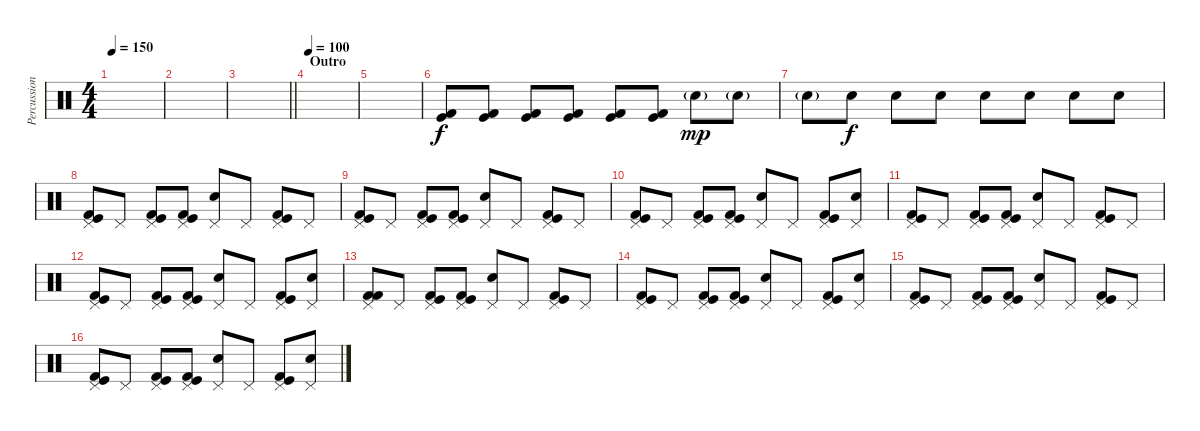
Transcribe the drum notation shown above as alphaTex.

\track ("Percussion" "Percussion") {instrument percussion}
\staff {score}
\articulation defaults
\ts (4 4)
\tempo 150
\clef neutral
\ks c
|
|
\barLineRight lightlight
|
\section ("" "Outro")
\tempo 100
|
|
("Kick (hit)" "Kick (hit) 2").8 ("Kick (hit)" "Kick (hit) 2").8 ("Kick (hit)" "Kick (hit) 2").8 ("Kick (hit)" "Kick (hit) 2").8 ("Kick (hit)" "Kick (hit) 2").8 ("Kick (hit)" "Kick (hit) 2").8 "Electric Snare (hit)"{g}.8{dy mp} "Electric Snare (hit)"{g}.8 |
"Electric Snare (hit)"{g}.8 "Electric Snare (hit)".8{dy f} "Electric Snare (hit)".8 "Electric Snare (hit)".8 "Electric Snare (hit)".8 "Electric Snare (hit)".8 "Electric Snare (hit)".8 "Electric Snare (hit)".8 |
("Kick (hit)" "Kick (hit) 2" "Pedal Hi-Hat (hit)").8 "Pedal Hi-Hat (hit)".8 ("Kick (hit)" "Kick (hit) 2" "Pedal Hi-Hat (hit)").8 ("Kick (hit)" "Kick (hit) 2" "Pedal Hi-Hat (hit)").8 ("Electric Snare (hit)" "Pedal Hi-Hat (hit)").8 "Pedal Hi-Hat (hit)".8 ("Kick (hit)" "Kick (hit) 2" "Pedal Hi-Hat (hit)").8 "Pedal Hi-Hat (hit)".8 |
("Kick (hit)" "Kick (hit) 2" "Pedal Hi-Hat (hit)").8 "Pedal Hi-Hat (hit)".8 ("Kick (hit)" "Kick (hit) 2" "Pedal Hi-Hat (hit)").8 ("Kick (hit)" "Kick (hit) 2" "Pedal Hi-Hat (hit)").8 ("Electric Snare (hit)" "Pedal Hi-Hat (hit)").8 "Pedal Hi-Hat (hit)".8 ("Kick (hit)" "Kick (hit) 2" "Pedal Hi-Hat (hit)").8 "Pedal Hi-Hat (hit)".8 |
("Kick (hit)" "Kick (hit) 2" "Pedal Hi-Hat (hit)").8 "Pedal Hi-Hat (hit)".8 ("Kick (hit)" "Kick (hit) 2" "Pedal Hi-Hat (hit)").8 ("Kick (hit)" "Kick (hit) 2" "Pedal Hi-Hat (hit)").8 ("Electric Snare (hit)" "Pedal Hi-Hat (hit)").8 "Pedal Hi-Hat (hit)".8 ("Kick (hit)" "Kick (hit) 2" "Pedal Hi-Hat (hit)").8 ("Electric Snare (hit)" "Pedal Hi-Hat (hit)").8 |
("Kick (hit)" "Kick (hit) 2" "Pedal Hi-Hat (hit)").8 "Pedal Hi-Hat (hit)".8 ("Kick (hit)" "Kick (hit) 2" "Pedal Hi-Hat (hit)").8 ("Kick (hit)" "Kick (hit) 2" "Pedal Hi-Hat (hit)").8 ("Electric Snare (hit)" "Pedal Hi-Hat (hit)").8 "Pedal Hi-Hat (hit)".8 ("Kick (hit)" "Kick (hit) 2" "Pedal Hi-Hat (hit)").8 "Pedal Hi-Hat (hit)".8 |
("Kick (hit)" "Kick (hit) 2" "Pedal Hi-Hat (hit)").8 "Pedal Hi-Hat (hit)".8 ("Kick (hit)" "Kick (hit) 2" "Pedal Hi-Hat (hit)").8 ("Kick (hit)" "Kick (hit) 2" "Pedal Hi-Hat (hit)").8 ("Electric Snare (hit)" "Pedal Hi-Hat (hit)").8 "Pedal Hi-Hat (hit)".8 ("Kick (hit)" "Kick (hit) 2" "Pedal Hi-Hat (hit)").8 ("Electric Snare (hit)" "Pedal Hi-Hat (hit)").8 |
("Kick (hit) 2" "Kick (hit) 2" "Pedal Hi-Hat (hit)").8 "Pedal Hi-Hat (hit)".8 ("Kick (hit)" "Kick (hit) 2" "Pedal Hi-Hat (hit)").8 ("Kick (hit)" "Kick (hit) 2" "Pedal Hi-Hat (hit)").8 ("Electric Snare (hit)" "Pedal Hi-Hat (hit)").8 "Pedal Hi-Hat (hit)".8 ("Kick (hit)" "Kick (hit) 2" "Pedal Hi-Hat (hit)").8 "Pedal Hi-Hat (hit)".8 |
("Kick (hit)" "Kick (hit) 2" "Pedal Hi-Hat (hit)").8 "Pedal Hi-Hat (hit)".8 ("Kick (hit)" "Kick (hit) 2" "Pedal Hi-Hat (hit)").8 ("Kick (hit)" "Kick (hit) 2" "Pedal Hi-Hat (hit)").8 ("Electric Snare (hit)" "Pedal Hi-Hat (hit)").8 "Pedal Hi-Hat (hit)".8 ("Kick (hit)" "Kick (hit) 2" "Pedal Hi-Hat (hit)").8 ("Electric Snare (hit)" "Pedal Hi-Hat (hit)").8 |
("Kick (hit)" "Kick (hit) 2" "Pedal Hi-Hat (hit)").8 "Pedal Hi-Hat (hit)".8 ("Kick (hit)" "Kick (hit) 2" "Pedal Hi-Hat (hit)").8 ("Kick (hit)" "Kick (hit) 2" "Pedal Hi-Hat (hit)").8 ("Electric Snare (hit)" "Pedal Hi-Hat (hit)").8 "Pedal Hi-Hat (hit)".8 ("Kick (hit)" "Kick (hit) 2" "Pedal Hi-Hat (hit)").8 "Pedal Hi-Hat (hit)".8 |
("Kick (hit)" "Kick (hit) 2" "Pedal Hi-Hat (hit)").8{volume 0} "Pedal Hi-Hat (hit)".8 ("Kick (hit)" "Kick (hit) 2" "Pedal Hi-Hat (hit)").8 ("Kick (hit)" "Kick (hit) 2" "Pedal Hi-Hat (hit)").8 ("Electric Snare (hit)" "Pedal Hi-Hat (hit)").8 "Pedal Hi-Hat (hit)".8 ("Kick (hit)" "Kick (hit) 2" "Pedal Hi-Hat (hit)").8 ("Electric Snare (hit)" "Pedal Hi-Hat (hit)").8
